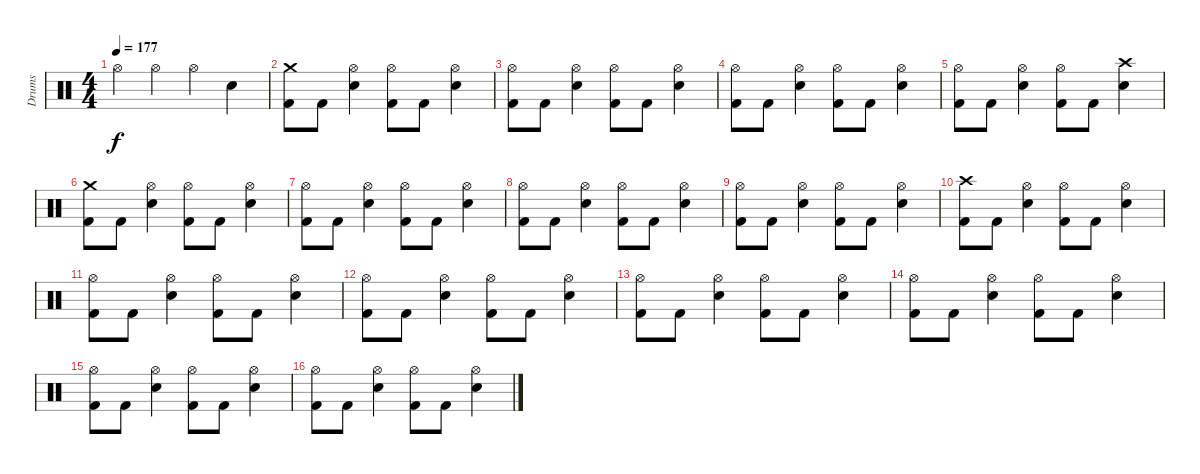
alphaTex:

\track ("Drums" "Drums") {instrument percussion}
\staff {score}
\articulation defaults
\ts (4 4)
\tempo 177
\clef neutral
\ks c "Hi-Hat (open)".4{dy f} "Hi-Hat (open)".4 "Hi-Hat (open)".4 "Snare (hit) 2".4
|
("Crash medium (hit)" "Kick (hit) 2").8 "Kick (hit) 2".8 ("Hi-Hat (open)" "Snare (hit) 2").4 ("Hi-Hat (open)" "Kick (hit) 2").8 "Kick (hit) 2".8 ("Hi-Hat (open)" "Snare (hit) 2").4 |
("Hi-Hat (open)" "Kick (hit) 2").8 "Kick (hit) 2".8 ("Hi-Hat (open)" "Snare (hit) 2").4 ("Hi-Hat (open)" "Kick (hit) 2").8 "Kick (hit) 2".8 ("Hi-Hat (open)" "Snare (hit) 2").4 |
("Hi-Hat (open)" "Kick (hit) 2").8 "Kick (hit) 2".8 ("Hi-Hat (open)" "Snare (hit) 2").4 ("Hi-Hat (open)" "Kick (hit) 2").8 "Kick (hit) 2".8 ("Hi-Hat (open)" "Snare (hit) 2").4 |
("Hi-Hat (open)" "Kick (hit) 2").8 "Kick (hit) 2".8 ("Hi-Hat (open)" "Snare (hit) 2").4 ("Hi-Hat (open)" "Kick (hit) 2").8 "Kick (hit) 2".8 ("Crash high (hit)" "Snare (hit) 2").4 |
("Crash medium (hit)" "Kick (hit) 2").8 "Kick (hit) 2".8 ("Hi-Hat (open)" "Snare (hit) 2").4 ("Hi-Hat (open)" "Kick (hit) 2").8 "Kick (hit) 2".8 ("Hi-Hat (open)" "Snare (hit) 2").4 |
("Hi-Hat (open)" "Kick (hit) 2").8 "Kick (hit) 2".8 ("Hi-Hat (open)" "Snare (hit) 2").4 ("Hi-Hat (open)" "Kick (hit) 2").8 "Kick (hit) 2".8 ("Hi-Hat (open)" "Snare (hit) 2").4 |
("Hi-Hat (open)" "Kick (hit) 2").8 "Kick (hit) 2".8 ("Hi-Hat (open)" "Snare (hit) 2").4 ("Hi-Hat (open)" "Kick (hit) 2").8 "Kick (hit) 2".8 ("Hi-Hat (open)" "Snare (hit) 2").4 |
("Hi-Hat (open)" "Kick (hit) 2").8 "Kick (hit) 2".8 ("Hi-Hat (open)" "Snare (hit) 2").4 ("Hi-Hat (open)" "Kick (hit) 2").8 "Kick (hit) 2".8 ("Hi-Hat (open)" "Snare (hit) 2").4 |
("Crash high (hit)" "Kick (hit) 2").8 "Kick (hit) 2".8 ("Hi-Hat (open)" "Snare (hit) 2").4 ("Hi-Hat (open)" "Kick (hit) 2").8 "Kick (hit) 2".8 ("Hi-Hat (open)" "Snare (hit) 2").4 |
("Hi-Hat (open)" "Kick (hit) 2").8 "Kick (hit) 2".8 ("Hi-Hat (open)" "Snare (hit) 2").4 ("Hi-Hat (open)" "Kick (hit) 2").8 "Kick (hit) 2".8 ("Hi-Hat (open)" "Snare (hit) 2").4 |
("Hi-Hat (open)" "Kick (hit) 2").8 "Kick (hit) 2".8 ("Hi-Hat (open)" "Snare (hit) 2").4 ("Hi-Hat (open)" "Kick (hit) 2").8 "Kick (hit) 2".8 ("Hi-Hat (open)" "Snare (hit) 2").4 |
("Hi-Hat (open)" "Kick (hit) 2").8 "Kick (hit) 2".8 ("Hi-Hat (open)" "Snare (hit) 2").4 ("Hi-Hat (open)" "Kick (hit) 2").8 "Kick (hit) 2".8 ("Hi-Hat (open)" "Snare (hit) 2").4 |
("Hi-Hat (open)" "Kick (hit) 2").8 "Kick (hit) 2".8 ("Hi-Hat (open)" "Snare (hit) 2").4 ("Hi-Hat (open)" "Kick (hit) 2").8 "Kick (hit) 2".8 ("Hi-Hat (open)" "Snare (hit) 2").4 |
("Hi-Hat (open)" "Kick (hit) 2").8 "Kick (hit) 2".8 ("Hi-Hat (open)" "Snare (hit) 2").4 ("Hi-Hat (open)" "Kick (hit) 2").8 "Kick (hit) 2".8 ("Hi-Hat (open)" "Snare (hit) 2").4 |
("Hi-Hat (open)" "Kick (hit) 2").8 "Kick (hit) 2".8 ("Hi-Hat (open)" "Snare (hit) 2").4 ("Hi-Hat (open)" "Kick (hit) 2").8 "Kick (hit) 2".8 ("Hi-Hat (open)" "Snare (hit) 2").4
